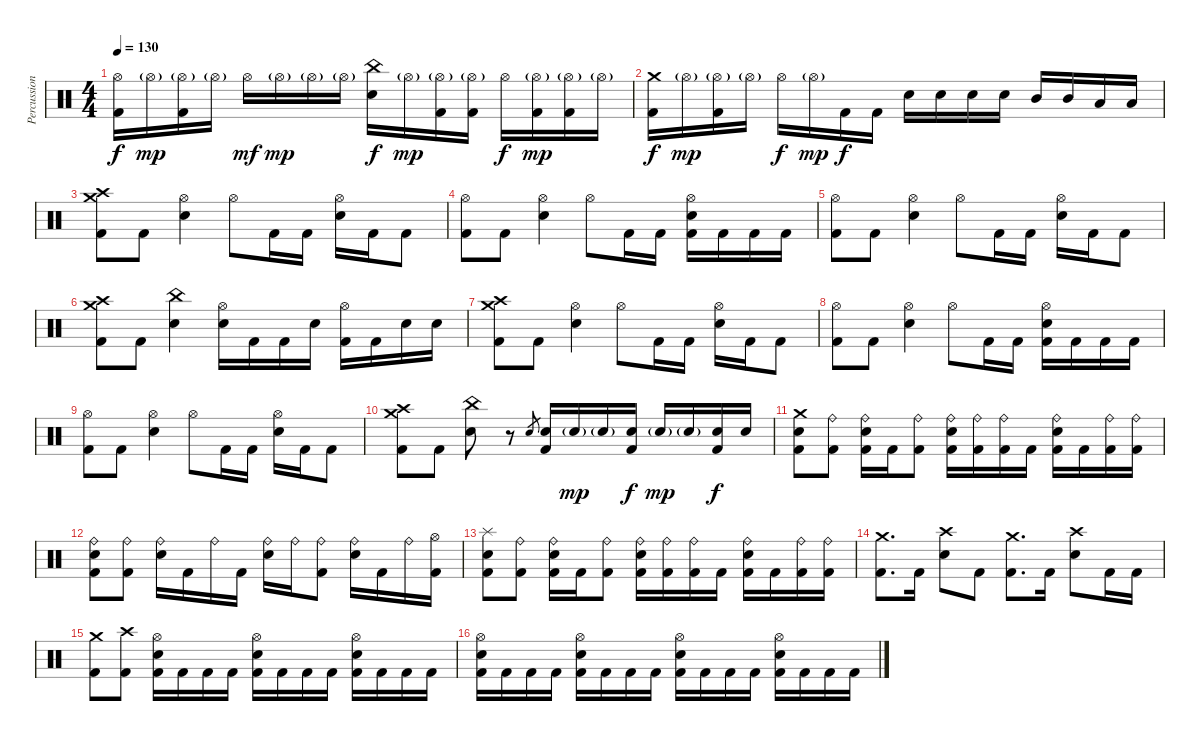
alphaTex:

\track ("Percussion" "Percussion") {instrument percussion}
\staff {score}
\articulation defaults
\ts (4 4)
\tempo 130
\clef neutral
\ks c
("Hi-Hat (open)" "Kick (hit) 2").16{dy f} "Hi-Hat (open)"{g}.16{dy mp} ("Hi-Hat (open)"{g} "Kick (hit) 2").16 "Hi-Hat (open)"{g}.16 "Hi-Hat (open)".16{dy mf} "Hi-Hat (open)"{g}.16{dy mp} "Hi-Hat (open)"{g}.16 "Hi-Hat (open)"{g}.16 ("China (hit)" "Electric Snare (hit)").16{dy f} "Hi-Hat (open)"{g}.16{dy mp} ("Hi-Hat (open)"{g} "Kick (hit) 2").16 ("Hi-Hat (open)"{g} "Kick (hit) 2").16 "Hi-Hat (open)".16{dy f} ("Hi-Hat (open)"{g} "Kick (hit) 2").16{dy mp} ("Hi-Hat (open)"{g} "Kick (hit) 2").16 "Hi-Hat (open)"{g}.16 |
("Crash medium (hit)" "Kick (hit) 2").16{dy f} "Hi-Hat (open)"{g}.16{dy mp} ("Hi-Hat (open)"{g} "Kick (hit) 2").16 "Hi-Hat (open)"{g}.16 "Hi-Hat (open)".16{dy f} "Hi-Hat (open)"{g}.16{dy mp} "Kick (hit) 2".16{dy f} "Kick (hit) 2".16 "Electric Snare (hit)".16 "Electric Snare (hit)".16 "Electric Snare (hit)".16 "Electric Snare (hit)".16 "Mid Tom (hit)".16 "Mid Tom (hit)".16 "Low Tom (hit)".16 "Low Tom (hit)".16 |
("Crash medium (hit)" "Crash high (hit)" "Kick (hit) 2").8 "Kick (hit) 2".8 ("Hi-Hat (open)" "Electric Snare (hit)").4 "Hi-Hat (open)".8 "Kick (hit) 2".16 "Kick (hit) 2".16 ("Hi-Hat (open)" "Electric Snare (hit)").16 "Kick (hit) 2".16 "Kick (hit) 2".8 |
("Hi-Hat (open)" "Kick (hit) 2").8 "Kick (hit) 2".8 ("Hi-Hat (open)" "Electric Snare (hit)").4 "Hi-Hat (open)".8 "Kick (hit) 2".16 "Kick (hit) 2".16 ("Hi-Hat (open)" "Electric Snare (hit)" "Kick (hit) 2").16 "Kick (hit) 2".16 "Kick (hit) 2".16 "Kick (hit) 2".16 |
("Hi-Hat (open)" "Kick (hit) 2").8 "Kick (hit) 2".8 ("Hi-Hat (open)" "Electric Snare (hit)").4 "Hi-Hat (open)".8 "Kick (hit) 2".16 "Kick (hit) 2".16 ("Hi-Hat (open)" "Electric Snare (hit)").16 "Kick (hit) 2".16 "Kick (hit) 2".8 |
("Crash medium (hit)" "Crash high (hit)" "Kick (hit) 2").8 "Kick (hit) 2".8 ("China (hit)" "Electric Snare (hit)").4 ("Hi-Hat (open)" "Electric Snare (hit)").16 "Kick (hit) 2".16 "Kick (hit) 2".16 "Electric Snare (hit)".16 ("Hi-Hat (open)" "Kick (hit) 2").16 "Kick (hit) 2".16 "Electric Snare (hit)".16 "Electric Snare (hit)".16 |
("Crash medium (hit)" "Crash high (hit)" "Kick (hit) 2").8 "Kick (hit) 2".8 ("Hi-Hat (open)" "Electric Snare (hit)").4 "Hi-Hat (open)".8 "Kick (hit) 2".16 "Kick (hit) 2".16 ("Hi-Hat (open)" "Electric Snare (hit)").16 "Kick (hit) 2".16 "Kick (hit) 2".8 |
("Hi-Hat (open)" "Kick (hit) 2").8 "Kick (hit) 2".8 ("Hi-Hat (open)" "Electric Snare (hit)").4 "Hi-Hat (open)".8 "Kick (hit) 2".16 "Kick (hit) 2".16 ("Hi-Hat (open)" "Electric Snare (hit)" "Kick (hit) 2").16 "Kick (hit) 2".16 "Kick (hit) 2".16 "Kick (hit) 2".16 |
("Hi-Hat (open)" "Kick (hit) 2").8 "Kick (hit) 2".8 ("Hi-Hat (open)" "Electric Snare (hit)").4 "Hi-Hat (open)".8 "Kick (hit) 2".16 "Kick (hit) 2".16 ("Hi-Hat (open)" "Electric Snare (hit)").16 "Kick (hit) 2".16 "Kick (hit) 2".8 |
("Crash medium (hit)" "Crash high (hit)" "Kick (hit) 2").8 "Kick (hit) 2".8 ("China (hit)" "Electric Snare (hit)").8 r.8 "Electric Snare (hit)".8{gr} ("Electric Snare (hit)" "Kick (hit) 2").16 "Electric Snare (hit)"{g}.16{dy mp} "Electric Snare (hit)"{g}.16 ("Electric Snare (hit)" "Kick (hit) 2").16{dy f} "Electric Snare (hit)"{g}.16{dy mp} "Electric Snare (hit)"{g}.16 ("Electric Snare (hit)" "Kick (hit) 2").16{dy f} "Electric Snare (hit)".16 |
("Crash medium (hit)" "Electric Snare (hit)" "Kick (hit) 2").8 ("Ride (bell)" "Kick (hit) 2").8 ("Ride (bell)" "Electric Snare (hit)" "Kick (hit) 2").16 "Kick (hit) 2".16 ("Ride (bell)" "Kick (hit) 2").8 ("Ride (bell)" "Electric Snare (hit)" "Kick (hit) 2").16 ("Ride (bell)" "Kick (hit) 2").16 ("Ride (bell)" "Kick (hit) 2").16 "Kick (hit) 2".16 ("Ride (bell)" "Electric Snare (hit)" "Kick (hit) 2").16 "Kick (hit) 2".16 ("Ride (bell)" "Kick (hit) 2").16 ("Ride (bell)" "Kick (hit) 2").16 |
("Ride (bell)" "Electric Snare (hit)" "Kick (hit) 2").8 ("Ride (bell)" "Kick (hit) 2").8 ("Ride (bell)" "Electric Snare (hit)").16 "Kick (hit) 2".16 "Ride (bell)".16 "Kick (hit) 2".16 ("Ride (bell)" "Electric Snare (hit)").16 "Ride (bell)".16 ("Ride (bell)" "Kick (hit) 2").8 ("Ride (bell)" "Electric Snare (hit)").16 "Kick (hit) 2".16 "Ride (bell)".16 ("Hi-Hat (open)" "Kick (hit) 2").16 |
("Splash (hit)" "Electric Snare (hit)" "Kick (hit) 2").8 ("Ride (bell)" "Kick (hit) 2").8 ("Ride (bell)" "Electric Snare (hit)" "Kick (hit) 2").16 "Kick (hit) 2".16 ("Ride (bell)" "Kick (hit) 2").8 ("Ride (bell)" "Electric Snare (hit)" "Kick (hit) 2").16 ("Ride (bell)" "Kick (hit) 2").16 ("Ride (bell)" "Kick (hit) 2").16 "Kick (hit) 2".16 ("Ride (bell)" "Electric Snare (hit)" "Kick (hit) 2").16 "Kick (hit) 2".16 ("Ride (bell)" "Kick (hit) 2").16 ("Ride (bell)" "Kick (hit) 2").16 |
("Crash medium (hit)" "Kick (hit) 2").8{d} "Kick (hit) 2".16 ("Crash high (hit)" "Electric Snare (hit)").8 "Kick (hit) 2".8 ("Crash medium (hit)" "Kick (hit) 2").8{d} "Kick (hit) 2".16 ("Crash high (hit)" "Electric Snare (hit)").8 "Kick (hit) 2".16 "Kick (hit) 2".16 |
("Crash medium (hit)" "Kick (hit) 2").8 ("Crash high (hit)" "Kick (hit) 2").8 ("Hi-Hat (open)" "Electric Snare (hit)" "Kick (hit) 2").16 "Kick (hit) 2".16 "Kick (hit) 2".16 "Kick (hit) 2".16 ("Hi-Hat (open)" "Electric Snare (hit)" "Kick (hit) 2").16 "Kick (hit) 2".16 "Kick (hit) 2".16 "Kick (hit) 2".16 ("Hi-Hat (open)" "Electric Snare (hit)" "Kick (hit) 2").16 "Kick (hit) 2".16 "Kick (hit) 2".16 "Kick (hit) 2".16 |
("Hi-Hat (open)" "Electric Snare (hit)" "Kick (hit) 2").16 "Kick (hit) 2".16 "Kick (hit) 2".16 "Kick (hit) 2".16 ("Hi-Hat (open)" "Electric Snare (hit)" "Kick (hit) 2").16 "Kick (hit) 2".16 "Kick (hit) 2".16 "Kick (hit) 2".16 ("Hi-Hat (open)" "Electric Snare (hit)" "Kick (hit) 2").16 "Kick (hit) 2".16 "Kick (hit) 2".16 "Kick (hit) 2".16 ("Hi-Hat (open)" "Electric Snare (hit)" "Kick (hit) 2").16 "Kick (hit) 2".16 "Kick (hit) 2".16 "Kick (hit) 2".16
